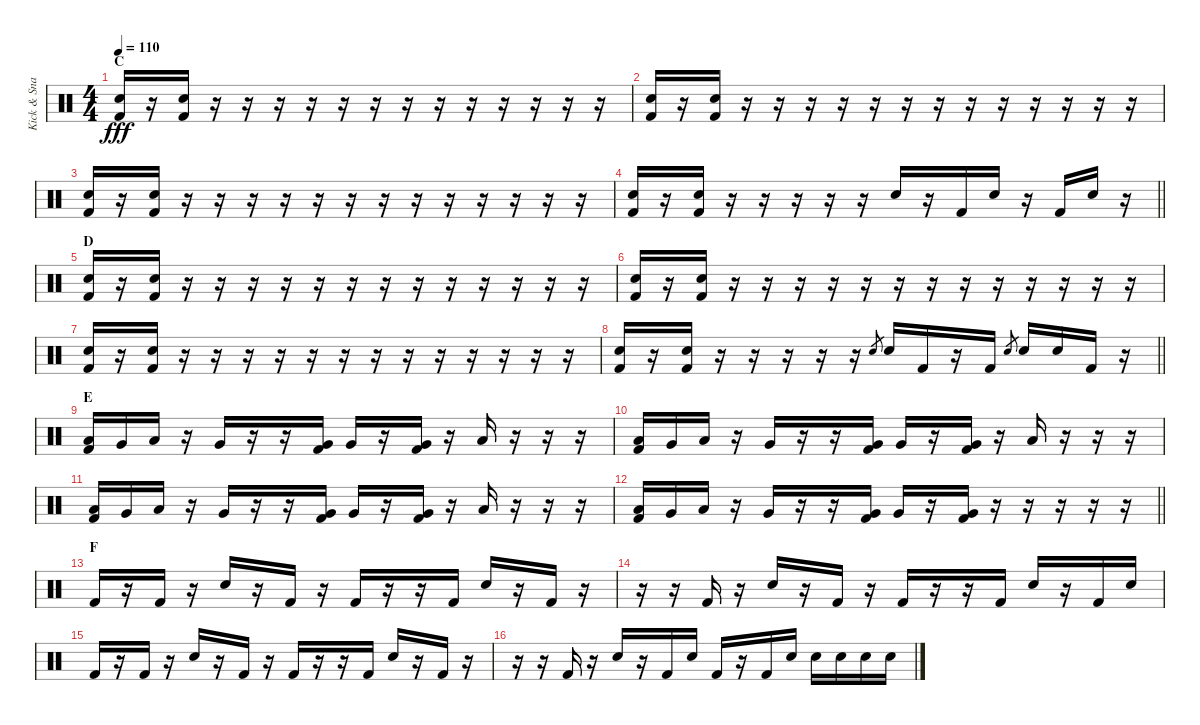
\track ("Kick & Snare" "Kick & Sna") {instrument percussion}
\staff {score}
\articulation defaults
\ts (4 4)
\section ("" "C")
\tempo 110
\clef neutral
\ks c
("Snare (hit) 2" "Kick (hit) 2").16{dy fff} r.16 ("Snare (hit) 2" "Kick (hit) 2").16 r.16 r.16 r.16 r.16 r.16 r.16 r.16 r.16 r.16 r.16 r.16 r.16 r.16 |
("Snare (hit) 2" "Kick (hit) 2").16 r.16 ("Snare (hit) 2" "Kick (hit) 2").16 r.16 r.16 r.16 r.16 r.16 r.16 r.16 r.16 r.16 r.16 r.16 r.16 r.16 |
("Snare (hit) 2" "Kick (hit) 2").16 r.16 ("Snare (hit) 2" "Kick (hit) 2").16 r.16 r.16 r.16 r.16 r.16 r.16 r.16 r.16 r.16 r.16 r.16 r.16 r.16 |
\barLineRight lightlight
("Snare (hit) 2" "Kick (hit) 2").16 r.16 ("Snare (hit) 2" "Kick (hit) 2").16 r.16 r.16 r.16 r.16 r.16 "Snare (hit) 2".16 r.16 "Kick (hit) 2".16 "Snare (hit) 2".16 r.16 "Kick (hit) 2".16 "Snare (hit) 2".16 r.16 |
\section ("" "D")
("Snare (hit) 2" "Kick (hit) 2").16 r.16 ("Snare (hit) 2" "Kick (hit) 2").16 r.16 r.16 r.16 r.16 r.16 r.16 r.16 r.16 r.16 r.16 r.16 r.16 r.16 |
("Snare (hit) 2" "Kick (hit) 2").16 r.16 ("Snare (hit) 2" "Kick (hit) 2").16 r.16 r.16 r.16 r.16 r.16 r.16 r.16 r.16 r.16 r.16 r.16 r.16 r.16 |
("Snare (hit) 2" "Kick (hit) 2").16 r.16 ("Snare (hit) 2" "Kick (hit) 2").16 r.16 r.16 r.16 r.16 r.16 r.16 r.16 r.16 r.16 r.16 r.16 r.16 r.16 |
\barLineRight lightlight
("Snare (hit) 2" "Kick (hit) 2").16 r.16 ("Snare (hit) 2" "Kick (hit) 2").16 r.16 r.16 r.16 r.16 r.16 "Snare (hit) 2".8{gr} "Snare (hit) 2".16 "Kick (hit) 2".16 r.16 "Kick (hit) 2".16 "Snare (hit) 2".8{gr} "Snare (hit) 2".16 "Snare (hit) 2".16 "Kick (hit) 2".16 r.16 |
\section ("" "E")
("Low Floor Tom (hit)" "Kick (hit) 2").16 "Very Low Tom (hit)".16 "Low Tom (hit)".16 r.16 "Very Low Tom (hit)".16 r.16 r.16 ("Very Low Tom (hit)" "Kick (hit) 2").16 "Very Low Tom (hit)".16 r.16 ("Very Low Tom (hit)" "Kick (hit) 2").16 r.16 "Low Tom (hit)".16 r.16 r.16 r.16 |
("Low Floor Tom (hit)" "Kick (hit) 2").16 "Very Low Tom (hit)".16 "Low Tom (hit)".16 r.16 "Very Low Tom (hit)".16 r.16 r.16 ("Very Low Tom (hit)" "Kick (hit) 2").16 "Very Low Tom (hit)".16 r.16 ("Very Low Tom (hit)" "Kick (hit) 2").16 r.16 "Low Tom (hit)".16 r.16 r.16 r.16 |
("Low Floor Tom (hit)" "Kick (hit) 2").16 "Very Low Tom (hit)".16 "Low Tom (hit)".16 r.16 "Very Low Tom (hit)".16 r.16 r.16 ("Very Low Tom (hit)" "Kick (hit) 2").16 "Very Low Tom (hit)".16 r.16 ("Very Low Tom (hit)" "Kick (hit) 2").16 r.16 "Low Tom (hit)".16 r.16 r.16 r.16 |
\barLineRight lightlight
("Low Floor Tom (hit)" "Kick (hit) 2").16 "Very Low Tom (hit)".16 "Low Tom (hit)".16 r.16 "Very Low Tom (hit)".16 r.16 r.16 ("Very Low Tom (hit)" "Kick (hit) 2").16 "Very Low Tom (hit)".16 r.16 ("Very Low Tom (hit)" "Kick (hit) 2").16 r.16 r.16 r.16 r.16 r.16 |
\section ("" "F")
"Kick (hit) 2".16 r.16 "Kick (hit) 2".16 r.16 "Snare (hit) 2".16 r.16 "Kick (hit) 2".16 r.16 "Kick (hit) 2".16 r.16 r.16 "Kick (hit) 2".16 "Snare (hit) 2".16 r.16 "Kick (hit) 2".16 r.16 |
r.16 r.16 "Kick (hit) 2".16 r.16 "Snare (hit) 2".16 r.16 "Kick (hit) 2".16 r.16 "Kick (hit) 2".16 r.16 r.16 "Kick (hit) 2".16 "Snare (hit) 2".16 r.16 "Kick (hit) 2".16 "Snare (hit) 2".16 |
"Kick (hit) 2".16 r.16 "Kick (hit) 2".16 r.16 "Snare (hit) 2".16 r.16 "Kick (hit) 2".16 r.16 "Kick (hit) 2".16 r.16 r.16 "Kick (hit) 2".16 "Snare (hit) 2".16 r.16 "Kick (hit) 2".16 r.16 |
r.16 r.16 "Kick (hit) 2".16 r.16 "Snare (hit) 2".16 r.16 "Kick (hit) 2".16 "Snare (hit) 2".16 "Kick (hit) 2".16 r.16 "Kick (hit) 2".16 "Snare (hit) 2".16 "Snare (hit) 2".16 "Snare (hit) 2".16 "Snare (hit) 2".16 "Snare (hit) 2".16
